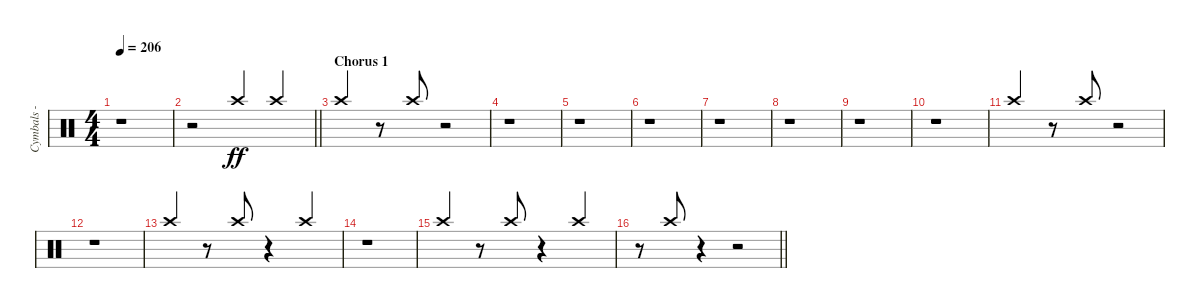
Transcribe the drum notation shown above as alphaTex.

\track ("Cymbals - crash" "Cymbals - ") {instrument percussion}
\staff {score}
\articulation defaults
\ts (4 4)
\tempo 206
\clef neutral
\ks c
r.1{dy ff} |
\barLineRight lightlight
r.2 "Crash high (hit)".4{beam Up} "Crash high (hit)".4{beam Up} |
\section ("" "Chorus 1")
"Crash high (hit)".4{beam Up} r.8 "Crash high (hit)".8{beam Up} r.2 |
r.1 |
r.1 |
r.1 |
r.1 |
r.1 |
r.1 |
r.1 |
"Crash high (hit)".4{beam Up} r.8 "Crash high (hit)".8{beam Up} r.2 |
r.1 |
"Crash high (hit)".4{beam Up} r.8 "Crash high (hit)".8{beam Up} r.4 "Crash high (hit)".4{beam Up} |
r.1 |
"Crash high (hit)".4{beam Up} r.8 "Crash high (hit)".8{beam Up} r.4 "Crash high (hit)".4{beam Up} |
\barLineRight lightlight
r.8 "Crash high (hit)".8{beam Up} r.4 r.2
